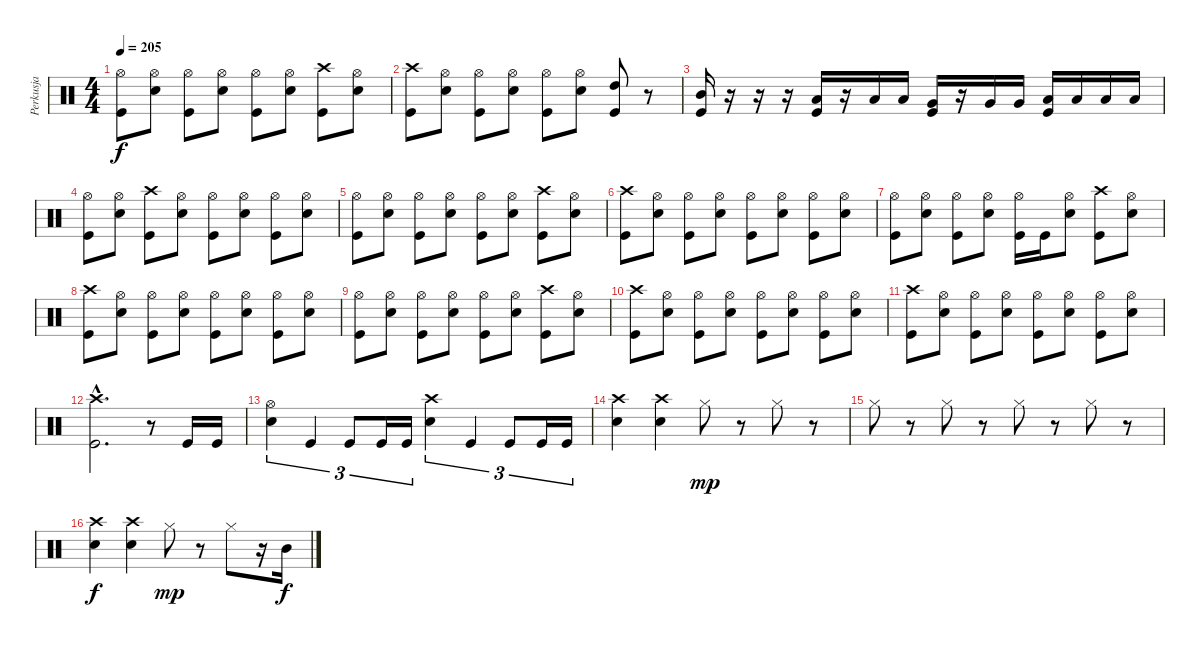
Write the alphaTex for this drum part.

\track ("Perkusja" "Perkusja") {instrument percussion}
\staff {score}
\articulation defaults
\ts (4 4)
\tempo 205
\clef neutral
\ks c
("Hi-Hat (open)" "Kick (hit)").8{dy f} ("Hi-Hat (open)" "Snare (hit) 2").8 ("Hi-Hat (open)" "Kick (hit)").8 ("Hi-Hat (open)" "Snare (hit) 2").8 ("Hi-Hat (open)" "Kick (hit)").8 ("Hi-Hat (open)" "Snare (hit) 2").8 ("Crash high (hit)" "Kick (hit)").8 ("Hi-Hat (open)" "Snare (hit) 2").8 |
("Crash high (hit)" "Kick (hit)").8 ("Hi-Hat (open)" "Snare (hit) 2").8 ("Hi-Hat (open)" "Kick (hit)").8 ("Hi-Hat (open)" "Snare (hit) 2").8 ("Hi-Hat (open)" "Kick (hit)").8 ("Hi-Hat (open)" "Snare (hit) 2").8 ("High Tom (hit)" "Kick (hit)").8 r.8 |
("Mid Tom (hit)" "Kick (hit)").16 r.16 r.16 r.16 ("Low Tom (hit)" "Kick (hit)").16 r.16 "Low Tom (hit)".16 "Low Tom (hit)".16 ("Very Low Tom (hit)" "Kick (hit)").16 r.16 "Very Low Tom (hit)".16 "Very Low Tom (hit)".16 ("Low Floor Tom (hit)" "Kick (hit)").16 "Low Floor Tom (hit)".16 "Low Floor Tom (hit)".16 "Low Floor Tom (hit)".16 |
("Hi-Hat (open)" "Kick (hit)").8 ("Hi-Hat (open)" "Snare (hit) 2").8 ("Crash high (hit)" "Kick (hit)").8 ("Hi-Hat (open)" "Snare (hit) 2").8 ("Hi-Hat (open)" "Kick (hit)").8 ("Hi-Hat (open)" "Snare (hit) 2").8 ("Hi-Hat (open)" "Kick (hit)").8 ("Hi-Hat (open)" "Snare (hit) 2").8 |
("Hi-Hat (open)" "Kick (hit)").8 ("Hi-Hat (open)" "Snare (hit) 2").8 ("Hi-Hat (open)" "Kick (hit)").8 ("Hi-Hat (open)" "Snare (hit) 2").8 ("Hi-Hat (open)" "Kick (hit)").8 ("Hi-Hat (open)" "Snare (hit) 2").8 ("Crash high (hit)" "Kick (hit)").8 ("Hi-Hat (open)" "Snare (hit) 2").8 |
("Crash high (hit)" "Kick (hit)").8 ("Hi-Hat (open)" "Snare (hit) 2").8 ("Hi-Hat (open)" "Kick (hit)").8 ("Hi-Hat (open)" "Snare (hit) 2").8 ("Hi-Hat (open)" "Kick (hit)").8 ("Hi-Hat (open)" "Snare (hit) 2").8 ("Hi-Hat (open)" "Kick (hit)").8 ("Hi-Hat (open)" "Snare (hit) 2").8 |
("Hi-Hat (open)" "Kick (hit)").8 ("Hi-Hat (open)" "Snare (hit) 2").8 ("Hi-Hat (open)" "Kick (hit)").8 ("Hi-Hat (open)" "Snare (hit) 2").8 ("Hi-Hat (open)" "Kick (hit)").16 "Kick (hit)".16 ("Hi-Hat (open)" "Snare (hit) 2").8 ("Crash high (hit)" "Kick (hit)").8 ("Hi-Hat (open)" "Snare (hit) 2").8 |
("Crash high (hit)" "Kick (hit)").8 ("Hi-Hat (open)" "Snare (hit) 2").8 ("Hi-Hat (open)" "Kick (hit)").8 ("Hi-Hat (open)" "Snare (hit) 2").8 ("Hi-Hat (open)" "Kick (hit)").8 ("Hi-Hat (open)" "Snare (hit) 2").8 ("Hi-Hat (open)" "Kick (hit)").8 ("Hi-Hat (open)" "Snare (hit) 2").8 |
("Hi-Hat (open)" "Kick (hit)").8 ("Hi-Hat (open)" "Snare (hit) 2").8 ("Hi-Hat (open)" "Kick (hit)").8 ("Hi-Hat (open)" "Snare (hit) 2").8 ("Hi-Hat (open)" "Kick (hit)").8 ("Hi-Hat (open)" "Snare (hit) 2").8 ("Crash high (hit)" "Kick (hit)").8 ("Hi-Hat (open)" "Snare (hit) 2").8 |
("Crash high (hit)" "Kick (hit)").8 ("Hi-Hat (open)" "Snare (hit) 2").8 ("Hi-Hat (open)" "Kick (hit)").8 ("Hi-Hat (open)" "Snare (hit) 2").8 ("Hi-Hat (open)" "Kick (hit)").8 ("Hi-Hat (open)" "Snare (hit) 2").8 ("Hi-Hat (open)" "Kick (hit)").8 ("Hi-Hat (open)" "Snare (hit) 2").8 |
("Crash high (hit)" "Kick (hit)").8 ("Hi-Hat (open)" "Snare (hit) 2").8 ("Hi-Hat (open)" "Kick (hit)").8 ("Hi-Hat (open)" "Snare (hit) 2").8 ("Hi-Hat (open)" "Kick (hit)").8 ("Hi-Hat (open)" "Snare (hit) 2").8 ("Hi-Hat (open)" "Kick (hit)").8 ("Hi-Hat (open)" "Snare (hit) 2").8 |
("Crash high (hit)"{hac} "Kick (hit)"{hac}).2{d} r.8 "Kick (hit)".16 "Kick (hit)".16 |
("Hi-Hat (open)" "Snare (hit) 2").4{tu (3 2)} "Kick (hit)".4{tu (3 2)} "Kick (hit)".8{tu (3 2)} "Kick (hit)".16{tu (3 2)} "Kick (hit)".16{tu (3 2)} ("Crash high (hit)" "Snare (hit) 2").4{tu (3 2)} "Kick (hit)".4{tu (3 2)} "Kick (hit)".8{tu (3 2)} "Kick (hit)".16{tu (3 2)} "Kick (hit)".16{tu (3 2)} |
("Crash high (hit)" "Snare (hit) 2").4 ("Crash high (hit)" "Snare (hit) 2").4 "Hi-Hat (closed)".8{dy mp} r.8 "Hi-Hat (closed)".8 r.8 |
"Hi-Hat (closed)".8 r.8 "Hi-Hat (closed)".8 r.8 "Hi-Hat (closed)".8 r.8 "Hi-Hat (closed)".8 r.8 |
("Crash high (hit)" "Snare (hit) 2").4{dy f} ("Crash high (hit)" "Snare (hit) 2").4 "Hi-Hat (closed)".8{dy mp} r.8 "Hi-Hat (closed)".8 r.16 "Mid Tom (hit)".16{dy f}
